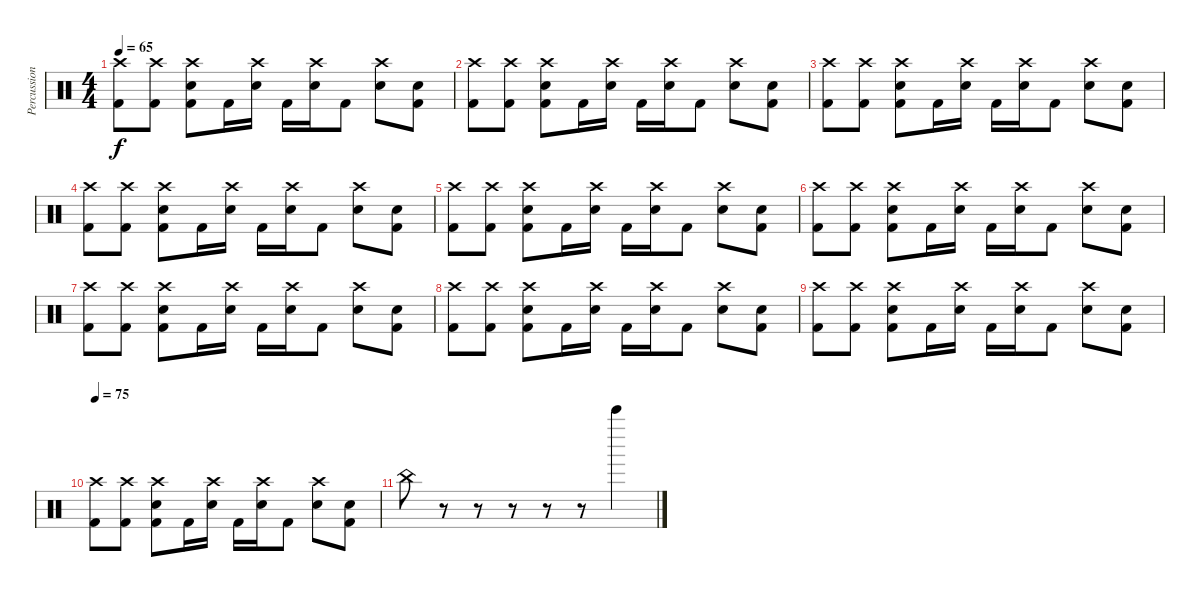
\track ("Percussion" "Percussion") {instrument percussion}
\staff {score}
\articulation defaults
\ts (4 4)
\tempo 65
\clef neutral
\ks c
("Crash high (hit)" "Kick (hit) 2").8{dy f} ("Crash high (hit)" "Kick (hit) 2").8 ("Crash high (hit)" "Snare (hit) 2" "Kick (hit) 2").8 "Kick (hit) 2".16 ("Crash high (hit)" "Snare (hit) 2").16 "Kick (hit) 2".16 ("Crash high (hit)" "Snare (hit) 2").16 "Kick (hit) 2".8 ("Crash high (hit)" "Snare (hit) 2").8 ("Snare (hit) 2" "Kick (hit) 2").8 |
("Crash high (hit)" "Kick (hit) 2").8 ("Crash high (hit)" "Kick (hit) 2").8 ("Crash high (hit)" "Snare (hit) 2" "Kick (hit) 2").8 "Kick (hit) 2".16 ("Crash high (hit)" "Snare (hit) 2").16 "Kick (hit) 2".16 ("Crash high (hit)" "Snare (hit) 2").16 "Kick (hit) 2".8 ("Crash high (hit)" "Snare (hit) 2").8 ("Snare (hit) 2" "Kick (hit) 2").8 |
("Crash high (hit)" "Kick (hit) 2").8 ("Crash high (hit)" "Kick (hit) 2").8 ("Crash high (hit)" "Snare (hit) 2" "Kick (hit) 2").8 "Kick (hit) 2".16 ("Crash high (hit)" "Snare (hit) 2").16 "Kick (hit) 2".16 ("Crash high (hit)" "Snare (hit) 2").16 "Kick (hit) 2".8 ("Crash high (hit)" "Snare (hit) 2").8 ("Snare (hit) 2" "Kick (hit) 2").8 |
("Crash high (hit)" "Kick (hit) 2").8 ("Crash high (hit)" "Kick (hit) 2").8 ("Crash high (hit)" "Snare (hit) 2" "Kick (hit) 2").8 "Kick (hit) 2".16 ("Crash high (hit)" "Snare (hit) 2").16 "Kick (hit) 2".16 ("Crash high (hit)" "Snare (hit) 2").16 "Kick (hit) 2".8 ("Crash high (hit)" "Snare (hit) 2").8 ("Snare (hit) 2" "Kick (hit) 2").8 |
("Crash high (hit)" "Kick (hit) 2").8 ("Crash high (hit)" "Kick (hit) 2").8 ("Crash high (hit)" "Snare (hit) 2" "Kick (hit) 2").8 "Kick (hit) 2".16 ("Crash high (hit)" "Snare (hit) 2").16 "Kick (hit) 2".16 ("Crash high (hit)" "Snare (hit) 2").16 "Kick (hit) 2".8 ("Crash high (hit)" "Snare (hit) 2").8 ("Snare (hit) 2" "Kick (hit) 2").8 |
("Crash high (hit)" "Kick (hit) 2").8 ("Crash high (hit)" "Kick (hit) 2").8 ("Crash high (hit)" "Snare (hit) 2" "Kick (hit) 2").8 "Kick (hit) 2".16 ("Crash high (hit)" "Snare (hit) 2").16 "Kick (hit) 2".16 ("Crash high (hit)" "Snare (hit) 2").16 "Kick (hit) 2".8 ("Crash high (hit)" "Snare (hit) 2").8 ("Snare (hit) 2" "Kick (hit) 2").8 |
("Crash high (hit)" "Kick (hit) 2").8 ("Crash high (hit)" "Kick (hit) 2").8 ("Crash high (hit)" "Snare (hit) 2" "Kick (hit) 2").8 "Kick (hit) 2".16 ("Crash high (hit)" "Snare (hit) 2").16 "Kick (hit) 2".16 ("Crash high (hit)" "Snare (hit) 2").16 "Kick (hit) 2".8 ("Crash high (hit)" "Snare (hit) 2").8 ("Snare (hit) 2" "Kick (hit) 2").8 |
("Crash high (hit)" "Kick (hit) 2").8 ("Crash high (hit)" "Kick (hit) 2").8 ("Crash high (hit)" "Snare (hit) 2" "Kick (hit) 2").8 "Kick (hit) 2".16 ("Crash high (hit)" "Snare (hit) 2").16 "Kick (hit) 2".16 ("Crash high (hit)" "Snare (hit) 2").16 "Kick (hit) 2".8 ("Crash high (hit)" "Snare (hit) 2").8 ("Snare (hit) 2" "Kick (hit) 2").8 |
("Crash high (hit)" "Kick (hit) 2").8 ("Crash high (hit)" "Kick (hit) 2").8 ("Crash high (hit)" "Snare (hit) 2" "Kick (hit) 2").8 "Kick (hit) 2".16 ("Crash high (hit)" "Snare (hit) 2").16 "Kick (hit) 2".16 ("Crash high (hit)" "Snare (hit) 2").16 "Kick (hit) 2".8 ("Crash high (hit)" "Snare (hit) 2").8 ("Snare (hit) 2" "Kick (hit) 2").8 |
\tempo 75
("Crash high (hit)" "Kick (hit) 2").8 ("Crash high (hit)" "Kick (hit) 2").8 ("Crash high (hit)" "Snare (hit) 2" "Kick (hit) 2").8 "Kick (hit) 2".16 ("Crash high (hit)" "Snare (hit) 2").16 "Kick (hit) 2".16 ("Crash high (hit)" "Snare (hit) 2").16 "Kick (hit) 2".8 ("Crash high (hit)" "Snare (hit) 2").8 ("Snare (hit) 2" "Kick (hit) 2").8 |
"China (hit)".8 r.8 r.8 r.8 r.8 r.8 "Bell Tree (hit)".4
